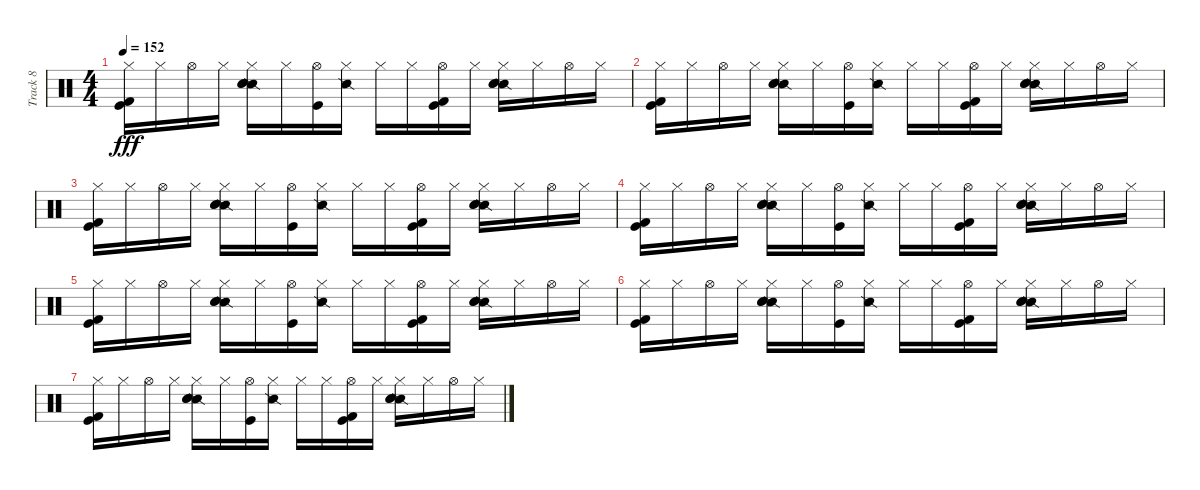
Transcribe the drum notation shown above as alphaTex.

\track ("Track 8" "Track 8") {instrument percussion}
\staff {score}
\articulation defaults
\ts (4 4)
\tempo 152
\clef neutral
\ks c
("Hi-Hat (closed)" "Kick (hit)" "Kick (hit) 2").16{dy fff} "Hi-Hat (closed)".16 "Hi-Hat (open)".16 "Hi-Hat (closed)".16 ("Hi-Hat (closed)" "Snare (side stick) 2" "Snare (hit) 2" "Electric Snare (hit)").16 "Hi-Hat (closed)".16 ("Hi-Hat (open)" "Kick (hit)").16 ("Hi-Hat (closed)" "Snare (side stick) 2").16 "Hi-Hat (closed)".16 "Hi-Hat (closed)".16 ("Hi-Hat (open)" "Kick (hit)" "Kick (hit) 2").16 "Hi-Hat (closed)".16 ("Hi-Hat (closed)" "Snare (side stick) 2" "Snare (hit) 2" "Electric Snare (hit)").16 "Hi-Hat (closed)".16 "Hi-Hat (open)".16 "Hi-Hat (closed)".16 |
("Hi-Hat (closed)" "Kick (hit)" "Kick (hit) 2").16 "Hi-Hat (closed)".16 "Hi-Hat (open)".16 "Hi-Hat (closed)".16 ("Hi-Hat (closed)" "Snare (side stick) 2" "Snare (hit) 2" "Electric Snare (hit)").16 "Hi-Hat (closed)".16 ("Hi-Hat (open)" "Kick (hit)").16 ("Hi-Hat (closed)" "Snare (side stick) 2").16 "Hi-Hat (closed)".16 "Hi-Hat (closed)".16 ("Hi-Hat (open)" "Kick (hit)" "Kick (hit) 2").16 "Hi-Hat (closed)".16 ("Hi-Hat (closed)" "Snare (side stick) 2" "Snare (hit) 2" "Electric Snare (hit)").16 "Hi-Hat (closed)".16 "Hi-Hat (open)".16 "Hi-Hat (closed)".16 |
("Hi-Hat (closed)" "Kick (hit)" "Kick (hit) 2").16 "Hi-Hat (closed)".16 "Hi-Hat (open)".16 "Hi-Hat (closed)".16 ("Hi-Hat (closed)" "Snare (side stick) 2" "Snare (hit) 2" "Electric Snare (hit)").16 "Hi-Hat (closed)".16 ("Hi-Hat (open)" "Kick (hit)").16 ("Hi-Hat (closed)" "Snare (side stick) 2").16 "Hi-Hat (closed)".16 "Hi-Hat (closed)".16 ("Hi-Hat (open)" "Kick (hit)" "Kick (hit) 2").16 "Hi-Hat (closed)".16 ("Hi-Hat (closed)" "Snare (side stick) 2" "Snare (hit) 2" "Electric Snare (hit)").16 "Hi-Hat (closed)".16 "Hi-Hat (open)".16 "Hi-Hat (closed)".16 |
("Hi-Hat (closed)" "Kick (hit)" "Kick (hit) 2").16 "Hi-Hat (closed)".16 "Hi-Hat (open)".16 "Hi-Hat (closed)".16 ("Hi-Hat (closed)" "Snare (side stick) 2" "Snare (hit) 2" "Electric Snare (hit)").16 "Hi-Hat (closed)".16 ("Hi-Hat (open)" "Kick (hit)").16 ("Hi-Hat (closed)" "Snare (side stick) 2").16 "Hi-Hat (closed)".16 "Hi-Hat (closed)".16 ("Hi-Hat (open)" "Kick (hit)" "Kick (hit) 2").16 "Hi-Hat (closed)".16 ("Hi-Hat (closed)" "Snare (side stick) 2" "Snare (hit) 2" "Electric Snare (hit)").16 "Hi-Hat (closed)".16 "Hi-Hat (open)".16 "Hi-Hat (closed)".16 |
("Hi-Hat (closed)" "Kick (hit)" "Kick (hit) 2").16 "Hi-Hat (closed)".16 "Hi-Hat (open)".16 "Hi-Hat (closed)".16 ("Hi-Hat (closed)" "Snare (side stick) 2" "Snare (hit) 2" "Electric Snare (hit)").16 "Hi-Hat (closed)".16 ("Hi-Hat (open)" "Kick (hit)").16 ("Hi-Hat (closed)" "Snare (side stick) 2").16 "Hi-Hat (closed)".16 "Hi-Hat (closed)".16 ("Hi-Hat (open)" "Kick (hit)" "Kick (hit) 2").16 "Hi-Hat (closed)".16 ("Hi-Hat (closed)" "Snare (side stick) 2" "Snare (hit) 2" "Electric Snare (hit)").16 "Hi-Hat (closed)".16 "Hi-Hat (open)".16 "Hi-Hat (closed)".16 |
("Hi-Hat (closed)" "Kick (hit)" "Kick (hit) 2").16 "Hi-Hat (closed)".16 "Hi-Hat (open)".16 "Hi-Hat (closed)".16 ("Hi-Hat (closed)" "Snare (side stick) 2" "Snare (hit) 2" "Electric Snare (hit)").16 "Hi-Hat (closed)".16 ("Hi-Hat (open)" "Kick (hit)").16 ("Hi-Hat (closed)" "Snare (side stick) 2").16 "Hi-Hat (closed)".16 "Hi-Hat (closed)".16 ("Hi-Hat (open)" "Kick (hit)" "Kick (hit) 2").16 "Hi-Hat (closed)".16 ("Hi-Hat (closed)" "Snare (side stick) 2" "Snare (hit) 2" "Electric Snare (hit)").16 "Hi-Hat (closed)".16 "Hi-Hat (open)".16 "Hi-Hat (closed)".16 |
("Hi-Hat (closed)" "Kick (hit)" "Kick (hit) 2").16 "Hi-Hat (closed)".16 "Hi-Hat (open)".16 "Hi-Hat (closed)".16 ("Hi-Hat (closed)" "Snare (side stick) 2" "Snare (hit) 2" "Electric Snare (hit)").16 "Hi-Hat (closed)".16 ("Hi-Hat (open)" "Kick (hit)").16 ("Hi-Hat (closed)" "Snare (side stick) 2").16 "Hi-Hat (closed)".16 "Hi-Hat (closed)".16 ("Hi-Hat (open)" "Kick (hit)" "Kick (hit) 2").16 "Hi-Hat (closed)".16 ("Hi-Hat (closed)" "Snare (side stick) 2" "Snare (hit) 2" "Electric Snare (hit)").16 "Hi-Hat (closed)".16 "Hi-Hat (open)".16 "Hi-Hat (closed)".16
